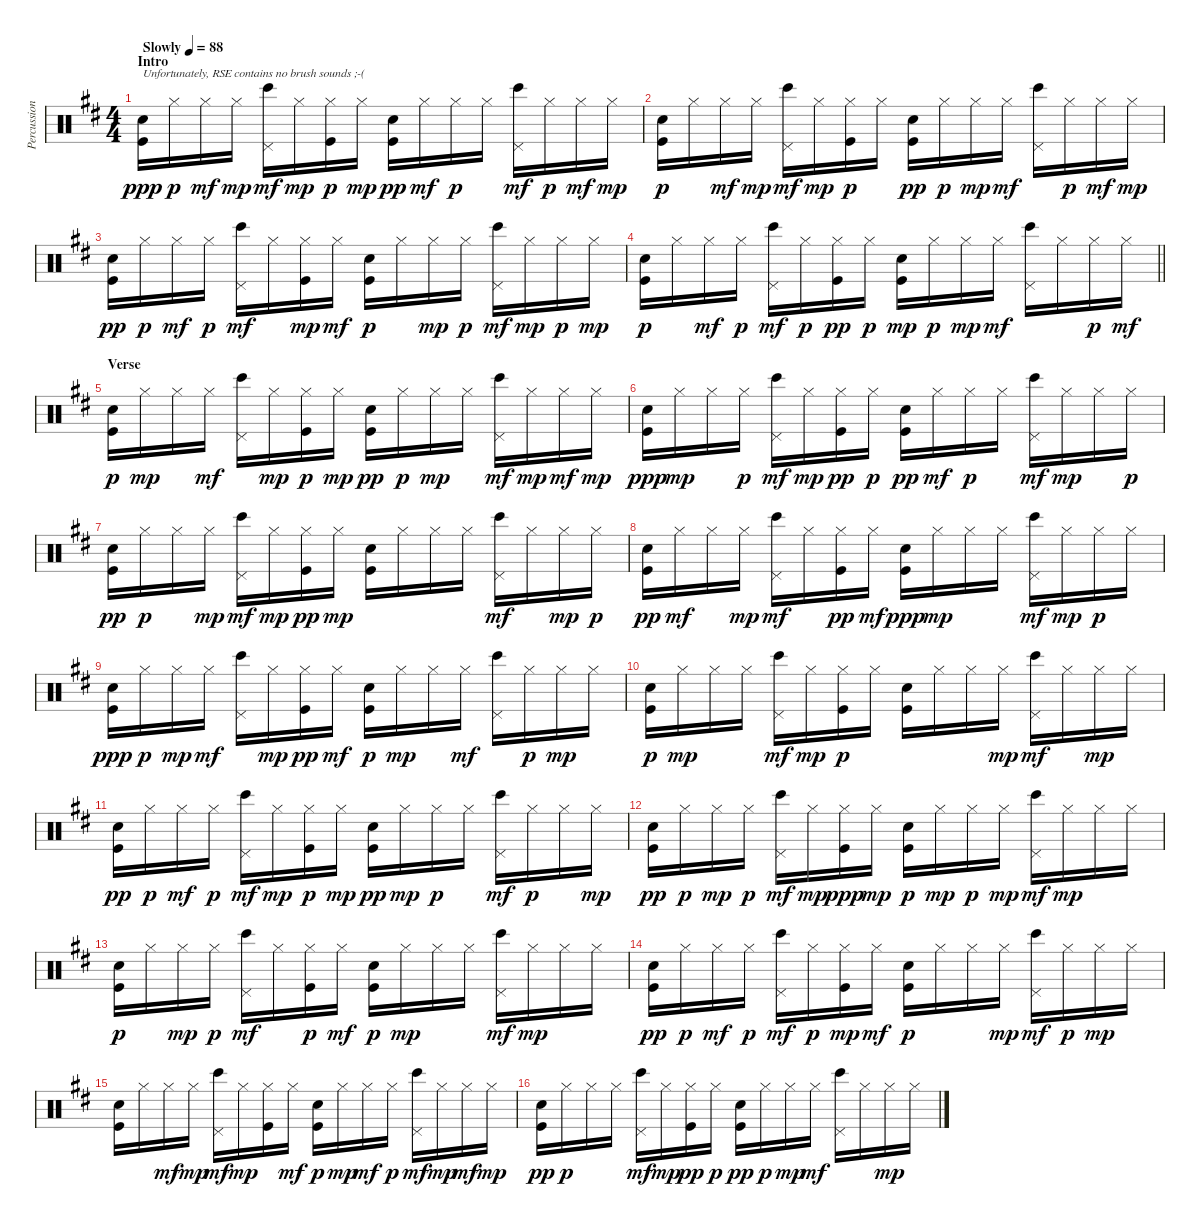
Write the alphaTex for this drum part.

\track ("Percussion" "Percussion") {instrument percussion}
\staff {score}
\articulation defaults
\ts (4 4)
\section ("" "Intro")
\tempo (88 "Slowly")
\clef neutral
\ks d
("Snare (hit)" "Kick (hit)").16{txt "Unfortunately, RSE contains no brush sounds ;-(" dy ppp} "Hi-Hat (closed)".16{dy p} "Hi-Hat (closed)".16{dy mf} "Hi-Hat (closed)".16{dy mp} ("Bongo High (hit)" "Pedal Hi-Hat (hit)").16{dy mf} "Hi-Hat (closed)".16{dy mp} ("Hi-Hat (closed)" "Kick (hit)").16{dy p} "Hi-Hat (closed)".16{dy mp} ("Snare (hit)" "Kick (hit)").16{dy pp} "Hi-Hat (closed)".16{dy mf} "Hi-Hat (closed)".16{dy p} "Hi-Hat (closed)".16 ("Bongo High (hit)" "Pedal Hi-Hat (hit)").16{dy mf} "Hi-Hat (closed)".16{dy p} "Hi-Hat (closed)".16{dy mf} "Hi-Hat (closed)".16{dy mp} |
("Snare (hit)" "Kick (hit)").16{dy p} "Hi-Hat (closed)".16 "Hi-Hat (closed)".16{dy mf} "Hi-Hat (closed)".16{dy mp} ("Bongo High (hit)" "Pedal Hi-Hat (hit)").16{dy mf} "Hi-Hat (closed)".16{dy mp} ("Hi-Hat (closed)" "Kick (hit)").16{dy p} "Hi-Hat (closed)".16 ("Snare (hit)" "Kick (hit)").16{dy pp} "Hi-Hat (closed)".16{dy p} "Hi-Hat (closed)".16{dy mp} "Hi-Hat (closed)".16{dy mf} ("Bongo High (hit)" "Pedal Hi-Hat (hit)").16 "Hi-Hat (closed)".16{dy p} "Hi-Hat (closed)".16{dy mf} "Hi-Hat (closed)".16{dy mp} |
("Snare (hit)" "Kick (hit)").16{dy pp} "Hi-Hat (closed)".16{dy p} "Hi-Hat (closed)".16{dy mf} "Hi-Hat (closed)".16{dy p} ("Bongo High (hit)" "Pedal Hi-Hat (hit)").16{dy mf} "Hi-Hat (closed)".16 ("Hi-Hat (closed)" "Kick (hit)").16{dy mp} "Hi-Hat (closed)".16{dy mf} ("Snare (hit)" "Kick (hit)").16{dy p} "Hi-Hat (closed)".16 "Hi-Hat (closed)".16{dy mp} "Hi-Hat (closed)".16{dy p} ("Bongo High (hit)" "Pedal Hi-Hat (hit)").16{dy mf} "Hi-Hat (closed)".16{dy mp} "Hi-Hat (closed)".16{dy p} "Hi-Hat (closed)".16{dy mp} |
\barLineRight lightlight
("Snare (hit)" "Kick (hit)").16{dy p} "Hi-Hat (closed)".16 "Hi-Hat (closed)".16{dy mf} "Hi-Hat (closed)".16{dy p} ("Bongo High (hit)" "Pedal Hi-Hat (hit)").16{dy mf} "Hi-Hat (closed)".16{dy p} ("Hi-Hat (closed)" "Kick (hit)").16{dy pp} "Hi-Hat (closed)".16{dy p} ("Snare (hit)" "Kick (hit)").16{dy mp} "Hi-Hat (closed)".16{dy p} "Hi-Hat (closed)".16{dy mp} "Hi-Hat (closed)".16{dy mf} ("Bongo High (hit)" "Pedal Hi-Hat (hit)").16 "Hi-Hat (closed)".16 "Hi-Hat (closed)".16{dy p} "Hi-Hat (closed)".16{dy mf} |
\section ("" "Verse")
("Snare (hit)" "Kick (hit)").16{dy p} "Hi-Hat (closed)".16{dy mp} "Hi-Hat (closed)".16 "Hi-Hat (closed)".16{dy mf} ("Bongo High (hit)" "Pedal Hi-Hat (hit)").16 "Hi-Hat (closed)".16{dy mp} ("Hi-Hat (closed)" "Kick (hit)").16{dy p} "Hi-Hat (closed)".16{dy mp} ("Snare (hit)" "Kick (hit)").16{dy pp} "Hi-Hat (closed)".16{dy p} "Hi-Hat (closed)".16{dy mp} "Hi-Hat (closed)".16 ("Bongo High (hit)" "Pedal Hi-Hat (hit)").16{dy mf} "Hi-Hat (closed)".16{dy mp} "Hi-Hat (closed)".16{dy mf} "Hi-Hat (closed)".16{dy mp} |
("Snare (hit)" "Kick (hit)").16{dy ppp} "Hi-Hat (closed)".16{dy mp} "Hi-Hat (closed)".16 "Hi-Hat (closed)".16{dy p} ("Bongo High (hit)" "Pedal Hi-Hat (hit)").16{dy mf} "Hi-Hat (closed)".16{dy mp} ("Hi-Hat (closed)" "Kick (hit)").16{dy pp} "Hi-Hat (closed)".16{dy p} ("Snare (hit)" "Kick (hit)").16{dy pp} "Hi-Hat (closed)".16{dy mf} "Hi-Hat (closed)".16{dy p} "Hi-Hat (closed)".16 ("Bongo High (hit)" "Pedal Hi-Hat (hit)").16{dy mf} "Hi-Hat (closed)".16{dy mp} "Hi-Hat (closed)".16 "Hi-Hat (closed)".16{dy p} |
("Snare (hit)" "Kick (hit)").16{dy pp} "Hi-Hat (closed)".16{dy p} "Hi-Hat (closed)".16 "Hi-Hat (closed)".16{dy mp} ("Bongo High (hit)" "Pedal Hi-Hat (hit)").16{dy mf} "Hi-Hat (closed)".16{dy mp} ("Hi-Hat (closed)" "Kick (hit)").16{dy pp} "Hi-Hat (closed)".16{dy mp} ("Snare (hit)" "Kick (hit)").16 "Hi-Hat (closed)".16 "Hi-Hat (closed)".16 "Hi-Hat (closed)".16 ("Bongo High (hit)" "Pedal Hi-Hat (hit)").16{dy mf} "Hi-Hat (closed)".16 "Hi-Hat (closed)".16{dy mp} "Hi-Hat (closed)".16{dy p} |
("Snare (hit)" "Kick (hit)").16{dy pp} "Hi-Hat (closed)".16{dy mf} "Hi-Hat (closed)".16 "Hi-Hat (closed)".16{dy mp} ("Bongo High (hit)" "Pedal Hi-Hat (hit)").16{dy mf} "Hi-Hat (closed)".16 ("Hi-Hat (closed)" "Kick (hit)").16{dy pp} "Hi-Hat (closed)".16{dy mf} ("Snare (hit)" "Kick (hit)").16{dy ppp} "Hi-Hat (closed)".16{dy mp} "Hi-Hat (closed)".16 "Hi-Hat (closed)".16 ("Bongo High (hit)" "Pedal Hi-Hat (hit)").16{dy mf} "Hi-Hat (closed)".16{dy mp} "Hi-Hat (closed)".16{dy p} "Hi-Hat (closed)".16 |
("Snare (hit)" "Kick (hit)").16{dy ppp} "Hi-Hat (closed)".16{dy p} "Hi-Hat (closed)".16{dy mp} "Hi-Hat (closed)".16{dy mf} ("Bongo High (hit)" "Pedal Hi-Hat (hit)").16 "Hi-Hat (closed)".16{dy mp} ("Hi-Hat (closed)" "Kick (hit)").16{dy pp} "Hi-Hat (closed)".16{dy mf} ("Snare (hit)" "Kick (hit)").16{dy p} "Hi-Hat (closed)".16{dy mp} "Hi-Hat (closed)".16 "Hi-Hat (closed)".16{dy mf} ("Bongo High (hit)" "Pedal Hi-Hat (hit)").16 "Hi-Hat (closed)".16{dy p} "Hi-Hat (closed)".16{dy mp} "Hi-Hat (closed)".16 |
("Snare (hit)" "Kick (hit)").16{dy p} "Hi-Hat (closed)".16{dy mp} "Hi-Hat (closed)".16 "Hi-Hat (closed)".16 ("Bongo High (hit)" "Pedal Hi-Hat (hit)").16{dy mf} "Hi-Hat (closed)".16{dy mp} ("Hi-Hat (closed)" "Kick (hit)").16{dy p} "Hi-Hat (closed)".16 ("Snare (hit)" "Kick (hit)").16 "Hi-Hat (closed)".16 "Hi-Hat (closed)".16 "Hi-Hat (closed)".16{dy mp} ("Bongo High (hit)" "Pedal Hi-Hat (hit)").16{dy mf} "Hi-Hat (closed)".16 "Hi-Hat (closed)".16{dy mp} "Hi-Hat (closed)".16 |
("Snare (hit)" "Kick (hit)").16{dy pp} "Hi-Hat (closed)".16{dy p} "Hi-Hat (closed)".16{dy mf} "Hi-Hat (closed)".16{dy p} ("Bongo High (hit)" "Pedal Hi-Hat (hit)").16{dy mf} "Hi-Hat (closed)".16{dy mp} ("Hi-Hat (closed)" "Kick (hit)").16{dy p} "Hi-Hat (closed)".16{dy mp} ("Snare (hit)" "Kick (hit)").16{dy pp} "Hi-Hat (closed)".16{dy mp} "Hi-Hat (closed)".16{dy p} "Hi-Hat (closed)".16 ("Bongo High (hit)" "Pedal Hi-Hat (hit)").16{dy mf} "Hi-Hat (closed)".16{dy p} "Hi-Hat (closed)".16 "Hi-Hat (closed)".16{dy mp} |
("Snare (hit)" "Kick (hit)").16{dy pp} "Hi-Hat (closed)".16{dy p} "Hi-Hat (closed)".16{dy mp} "Hi-Hat (closed)".16{dy p} ("Bongo High (hit)" "Pedal Hi-Hat (hit)").16{dy mf} "Hi-Hat (closed)".16{dy mp} ("Hi-Hat (closed)" "Kick (hit)").16{dy ppp} "Hi-Hat (closed)".16{dy mp} ("Snare (hit)" "Kick (hit)").16{dy p} "Hi-Hat (closed)".16{dy mp} "Hi-Hat (closed)".16{dy p} "Hi-Hat (closed)".16{dy mp} ("Bongo High (hit)" "Pedal Hi-Hat (hit)").16{dy mf} "Hi-Hat (closed)".16{dy mp} "Hi-Hat (closed)".16 "Hi-Hat (closed)".16 |
("Snare (hit)" "Kick (hit)").16{dy p} "Hi-Hat (closed)".16 "Hi-Hat (closed)".16{dy mp} "Hi-Hat (closed)".16{dy p} ("Bongo High (hit)" "Pedal Hi-Hat (hit)").16{dy mf} "Hi-Hat (closed)".16 ("Hi-Hat (closed)" "Kick (hit)").16{dy p} "Hi-Hat (closed)".16{dy mf} ("Snare (hit)" "Kick (hit)").16{dy p} "Hi-Hat (closed)".16{dy mp} "Hi-Hat (closed)".16 "Hi-Hat (closed)".16 ("Bongo High (hit)" "Pedal Hi-Hat (hit)").16{dy mf} "Hi-Hat (closed)".16{dy mp} "Hi-Hat (closed)".16 "Hi-Hat (closed)".16 |
("Snare (hit)" "Kick (hit)").16{dy pp} "Hi-Hat (closed)".16{dy p} "Hi-Hat (closed)".16{dy mf} "Hi-Hat (closed)".16{dy p} ("Bongo High (hit)" "Pedal Hi-Hat (hit)").16{dy mf} "Hi-Hat (closed)".16{dy p} ("Hi-Hat (closed)" "Kick (hit)").16{dy mp} "Hi-Hat (closed)".16{dy mf} ("Snare (hit)" "Kick (hit)").16{dy p} "Hi-Hat (closed)".16 "Hi-Hat (closed)".16 "Hi-Hat (closed)".16{dy mp} ("Bongo High (hit)" "Pedal Hi-Hat (hit)").16{dy mf} "Hi-Hat (closed)".16{dy p} "Hi-Hat (closed)".16{dy mp} "Hi-Hat (closed)".16 |
("Snare (hit)" "Kick (hit)").16 "Hi-Hat (closed)".16 "Hi-Hat (closed)".16{dy mf} "Hi-Hat (closed)".16{dy mp} ("Bongo High (hit)" "Pedal Hi-Hat (hit)").16{dy mf} "Hi-Hat (closed)".16{dy mp} ("Hi-Hat (closed)" "Kick (hit)").16 "Hi-Hat (closed)".16{dy mf} ("Snare (hit)" "Kick (hit)").16{dy p} "Hi-Hat (closed)".16{dy mp} "Hi-Hat (closed)".16{dy mf} "Hi-Hat (closed)".16{dy p} ("Bongo High (hit)" "Pedal Hi-Hat (hit)").16{dy mf} "Hi-Hat (closed)".16{dy mp} "Hi-Hat (closed)".16{dy mf} "Hi-Hat (closed)".16{dy mp} |
("Snare (hit)" "Kick (hit)").16{dy pp} "Hi-Hat (closed)".16{dy p} "Hi-Hat (closed)".16 "Hi-Hat (closed)".16 ("Bongo High (hit)" "Pedal Hi-Hat (hit)").16{dy mf} "Hi-Hat (closed)".16{dy mp} ("Hi-Hat (closed)" "Kick (hit)").16{dy pp} "Hi-Hat (closed)".16{dy p} ("Snare (hit)" "Kick (hit)").16{dy pp} "Hi-Hat (closed)".16{dy p} "Hi-Hat (closed)".16{dy mp} "Hi-Hat (closed)".16{dy mf} ("Bongo High (hit)" "Pedal Hi-Hat (hit)").16 "Hi-Hat (closed)".16 "Hi-Hat (closed)".16{dy mp} "Hi-Hat (closed)".16
